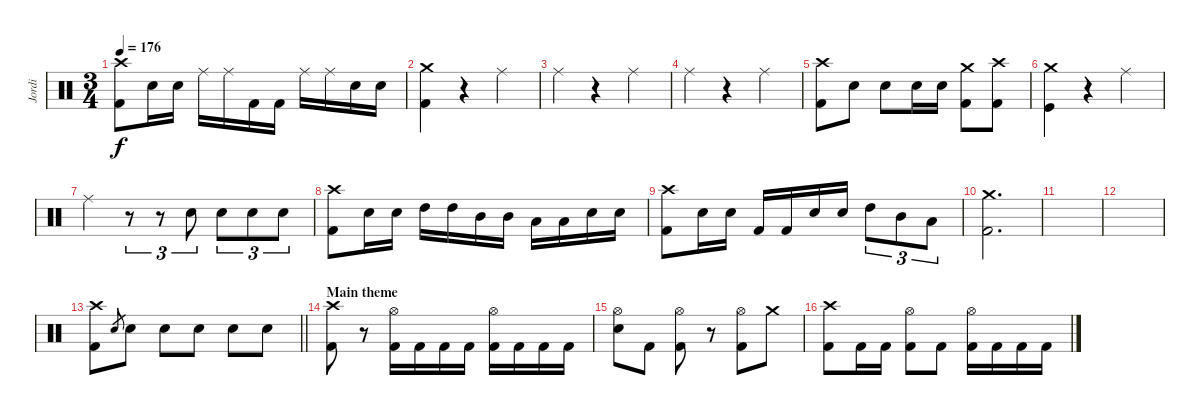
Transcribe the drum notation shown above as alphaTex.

\track ("Jordi" "Jordi") {instrument percussion}
\staff {score}
\articulation defaults
\ts (3 4)
\tempo 176
\clef neutral
\ks c
("Crash high (hit)" "Kick (hit) 2").8{dy f} "Snare (hit) 2".16 "Snare (hit) 2".16 "Ride (middle)".16 "Ride (middle)".16 "Kick (hit) 2".16 "Kick (hit) 2".16 "Ride (middle)".16 "Ride (middle)".16 "Snare (hit) 2".16 "Snare (hit) 2".16 |
("Crash medium (hit)" "Kick (hit) 2").4 r.4 "Ride (middle)".4 |
"Ride (middle)".4 r.4 "Ride (middle)".4 |
"Ride (middle)".4 r.4 "Ride (middle)".4 |
("Crash high (hit)" "Kick (hit) 2").8 "Snare (hit) 2".8 "Snare (hit) 2".8 "Snare (hit) 2".16 "Snare (hit) 2".16 ("Crash medium (hit)" "Kick (hit) 2").8 ("Crash high (hit)" "Kick (hit) 2").8 |
("Crash medium (hit)" "Kick (hit)").4 r.4 "Ride (middle)".4 |
"Ride (middle)".4 r.8{tu (3 2)} r.8{tu (3 2)} "Snare (hit) 2".8{tu (3 2)} "Snare (hit) 2".8{tu (3 2)} "Snare (hit) 2".8{tu (3 2)} "Snare (hit) 2".8{tu (3 2)} |
("Crash high (hit)" "Kick (hit) 2").8 "Snare (hit) 2".16 "Snare (hit) 2".16 "High Tom (hit)".16 "High Tom (hit)".16 "Mid Tom (hit)".16 "Mid Tom (hit)".16 "Low Floor Tom (hit)".16 "Low Floor Tom (hit)".16 "Snare (hit) 2".16 "Snare (hit) 2".16 |
("Crash high (hit)" "Kick (hit) 2").8 "Snare (hit) 2".16 "Snare (hit) 2".16 "Kick (hit) 2".16 "Kick (hit) 2".16 "Snare (hit) 2".16 "Snare (hit) 2".16 "High Tom (hit)".8{tu (3 2)} "Mid Tom (hit)".8{tu (3 2)} "Low Floor Tom (hit)".8{tu (3 2)} |
("Crash medium (hit)" "Kick (hit) 2").2{d} |
|
|
\barLineRight lightlight
("Crash high (hit)" "Kick (hit) 2").8 "Snare (hit) 2".8{gr} "Snare (hit) 2".8 "Snare (hit) 2".8 "Snare (hit) 2".8 "Snare (hit) 2".8 "Snare (hit) 2".8 |
\section ("" "Main theme")
("Crash high (hit)" "Kick (hit) 2").8 r.8 ("Hi-Hat (open)" "Kick (hit) 2").16 "Kick (hit) 2".16 "Kick (hit) 2".16 "Kick (hit) 2".16 ("Hi-Hat (open)" "Kick (hit) 2").16 "Kick (hit) 2".16 "Kick (hit) 2".16 "Kick (hit) 2".16 |
("Hi-Hat (open)" "Snare (hit) 2").8 "Kick (hit) 2".8 ("Hi-Hat (open)" "Kick (hit) 2").8 r.8 ("Hi-Hat (open)" "Kick (hit) 2").8 "Crash medium (hit)".8 |
("Crash high (hit)" "Kick (hit) 2").8 "Kick (hit) 2".16 "Kick (hit) 2".16 ("Hi-Hat (open)" "Kick (hit) 2").8 "Kick (hit) 2".8 ("Hi-Hat (open)" "Kick (hit) 2").16 "Kick (hit) 2".16 "Kick (hit) 2".16 "Kick (hit) 2".16
